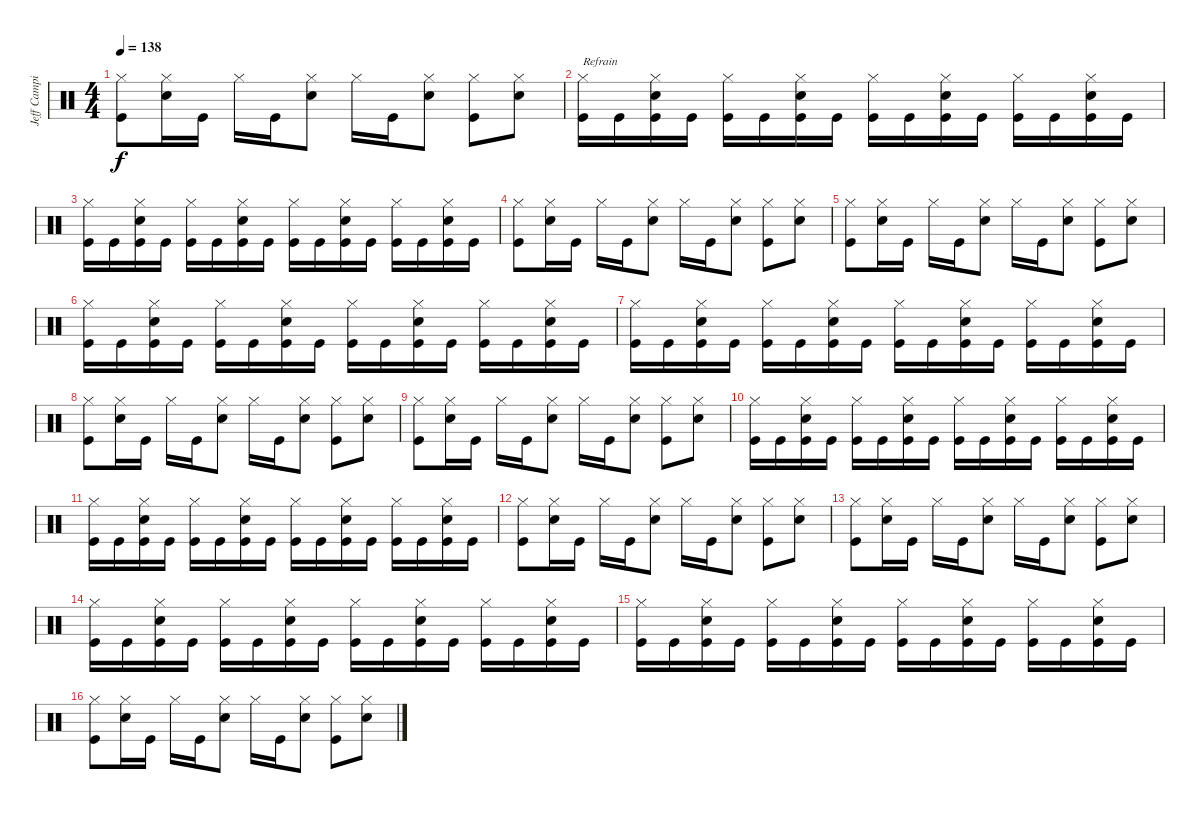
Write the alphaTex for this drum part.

\track ("Jeff Campitelli" "Jeff Campi") {instrument percussion}
\staff {score}
\articulation defaults
\ts (4 4)
\tempo 138
\clef neutral
\ks c
("Hi-Hat (closed)" "Kick (hit)").8{dy f} ("Electric Snare (hit)" "Hi-Hat (closed)").16 "Kick (hit)".16 "Hi-Hat (closed)".16 "Kick (hit)".16 ("Electric Snare (hit)" "Hi-Hat (closed)").8 "Hi-Hat (closed)".16 "Kick (hit)".16 ("Electric Snare (hit)" "Hi-Hat (closed)").8 ("Hi-Hat (closed)" "Kick (hit)").8 ("Electric Snare (hit)" "Hi-Hat (closed)").8 |
("Hi-Hat (closed)" "Kick (hit)").16{txt "Refrain"} "Kick (hit)".16 ("Electric Snare (hit)" "Hi-Hat (closed)" "Kick (hit)").16 "Kick (hit)".16 ("Hi-Hat (closed)" "Kick (hit)").16 "Kick (hit)".16 ("Electric Snare (hit)" "Hi-Hat (closed)" "Kick (hit)").16 "Kick (hit)".16 ("Hi-Hat (closed)" "Kick (hit)").16 "Kick (hit)".16 ("Electric Snare (hit)" "Hi-Hat (closed)" "Kick (hit)").16 "Kick (hit)".16 ("Hi-Hat (closed)" "Kick (hit)").16 "Kick (hit)".16 ("Electric Snare (hit)" "Hi-Hat (closed)" "Kick (hit)").16 "Kick (hit)".16 |
("Hi-Hat (closed)" "Kick (hit)").16 "Kick (hit)".16 ("Electric Snare (hit)" "Hi-Hat (closed)" "Kick (hit)").16 "Kick (hit)".16 ("Hi-Hat (closed)" "Kick (hit)").16 "Kick (hit)".16 ("Electric Snare (hit)" "Hi-Hat (closed)" "Kick (hit)").16 "Kick (hit)".16 ("Hi-Hat (closed)" "Kick (hit)").16 "Kick (hit)".16 ("Electric Snare (hit)" "Hi-Hat (closed)" "Kick (hit)").16 "Kick (hit)".16 ("Hi-Hat (closed)" "Kick (hit)").16 "Kick (hit)".16 ("Electric Snare (hit)" "Hi-Hat (closed)" "Kick (hit)").16 "Kick (hit)".16 |
("Hi-Hat (closed)" "Kick (hit)").8 ("Electric Snare (hit)" "Hi-Hat (closed)").16 "Kick (hit)".16 "Hi-Hat (closed)".16 "Kick (hit)".16 ("Electric Snare (hit)" "Hi-Hat (closed)").8 "Hi-Hat (closed)".16 "Kick (hit)".16 ("Electric Snare (hit)" "Hi-Hat (closed)").8 ("Hi-Hat (closed)" "Kick (hit)").8 ("Electric Snare (hit)" "Hi-Hat (closed)").8 |
("Hi-Hat (closed)" "Kick (hit)").8 ("Electric Snare (hit)" "Hi-Hat (closed)").16 "Kick (hit)".16 "Hi-Hat (closed)".16 "Kick (hit)".16 ("Electric Snare (hit)" "Hi-Hat (closed)").8 "Hi-Hat (closed)".16 "Kick (hit)".16 ("Electric Snare (hit)" "Hi-Hat (closed)").8 ("Hi-Hat (closed)" "Kick (hit)").8 ("Electric Snare (hit)" "Hi-Hat (closed)").8 |
("Hi-Hat (closed)" "Kick (hit)").16 "Kick (hit)".16 ("Electric Snare (hit)" "Hi-Hat (closed)" "Kick (hit)").16 "Kick (hit)".16 ("Hi-Hat (closed)" "Kick (hit)").16 "Kick (hit)".16 ("Electric Snare (hit)" "Hi-Hat (closed)" "Kick (hit)").16 "Kick (hit)".16 ("Hi-Hat (closed)" "Kick (hit)").16 "Kick (hit)".16 ("Electric Snare (hit)" "Hi-Hat (closed)" "Kick (hit)").16 "Kick (hit)".16 ("Hi-Hat (closed)" "Kick (hit)").16 "Kick (hit)".16 ("Electric Snare (hit)" "Hi-Hat (closed)" "Kick (hit)").16 "Kick (hit)".16 |
("Hi-Hat (closed)" "Kick (hit)").16 "Kick (hit)".16 ("Electric Snare (hit)" "Hi-Hat (closed)" "Kick (hit)").16 "Kick (hit)".16 ("Hi-Hat (closed)" "Kick (hit)").16 "Kick (hit)".16 ("Electric Snare (hit)" "Hi-Hat (closed)" "Kick (hit)").16 "Kick (hit)".16 ("Hi-Hat (closed)" "Kick (hit)").16 "Kick (hit)".16 ("Electric Snare (hit)" "Hi-Hat (closed)" "Kick (hit)").16 "Kick (hit)".16 ("Hi-Hat (closed)" "Kick (hit)").16 "Kick (hit)".16 ("Electric Snare (hit)" "Hi-Hat (closed)" "Kick (hit)").16 "Kick (hit)".16 |
("Hi-Hat (closed)" "Kick (hit)").8 ("Electric Snare (hit)" "Hi-Hat (closed)").16 "Kick (hit)".16 "Hi-Hat (closed)".16 "Kick (hit)".16 ("Electric Snare (hit)" "Hi-Hat (closed)").8 "Hi-Hat (closed)".16 "Kick (hit)".16 ("Electric Snare (hit)" "Hi-Hat (closed)").8 ("Hi-Hat (closed)" "Kick (hit)").8 ("Electric Snare (hit)" "Hi-Hat (closed)").8 |
("Hi-Hat (closed)" "Kick (hit)").8 ("Electric Snare (hit)" "Hi-Hat (closed)").16 "Kick (hit)".16 "Hi-Hat (closed)".16 "Kick (hit)".16 ("Electric Snare (hit)" "Hi-Hat (closed)").8 "Hi-Hat (closed)".16 "Kick (hit)".16 ("Electric Snare (hit)" "Hi-Hat (closed)").8 ("Hi-Hat (closed)" "Kick (hit)").8 ("Electric Snare (hit)" "Hi-Hat (closed)").8 |
("Hi-Hat (closed)" "Kick (hit)").16 "Kick (hit)".16 ("Electric Snare (hit)" "Hi-Hat (closed)" "Kick (hit)").16 "Kick (hit)".16 ("Hi-Hat (closed)" "Kick (hit)").16 "Kick (hit)".16 ("Electric Snare (hit)" "Hi-Hat (closed)" "Kick (hit)").16 "Kick (hit)".16 ("Hi-Hat (closed)" "Kick (hit)").16 "Kick (hit)".16 ("Electric Snare (hit)" "Hi-Hat (closed)" "Kick (hit)").16 "Kick (hit)".16 ("Hi-Hat (closed)" "Kick (hit)").16 "Kick (hit)".16 ("Electric Snare (hit)" "Hi-Hat (closed)" "Kick (hit)").16 "Kick (hit)".16 |
("Hi-Hat (closed)" "Kick (hit)").16 "Kick (hit)".16 ("Electric Snare (hit)" "Hi-Hat (closed)" "Kick (hit)").16 "Kick (hit)".16 ("Hi-Hat (closed)" "Kick (hit)").16 "Kick (hit)".16 ("Electric Snare (hit)" "Hi-Hat (closed)" "Kick (hit)").16 "Kick (hit)".16 ("Hi-Hat (closed)" "Kick (hit)").16 "Kick (hit)".16 ("Electric Snare (hit)" "Hi-Hat (closed)" "Kick (hit)").16 "Kick (hit)".16 ("Hi-Hat (closed)" "Kick (hit)").16 "Kick (hit)".16 ("Electric Snare (hit)" "Hi-Hat (closed)" "Kick (hit)").16 "Kick (hit)".16 |
("Hi-Hat (closed)" "Kick (hit)").8 ("Electric Snare (hit)" "Hi-Hat (closed)").16 "Kick (hit)".16 "Hi-Hat (closed)".16 "Kick (hit)".16 ("Electric Snare (hit)" "Hi-Hat (closed)").8 "Hi-Hat (closed)".16 "Kick (hit)".16 ("Electric Snare (hit)" "Hi-Hat (closed)").8 ("Hi-Hat (closed)" "Kick (hit)").8 ("Electric Snare (hit)" "Hi-Hat (closed)").8 |
("Hi-Hat (closed)" "Kick (hit)").8 ("Electric Snare (hit)" "Hi-Hat (closed)").16 "Kick (hit)".16 "Hi-Hat (closed)".16 "Kick (hit)".16 ("Electric Snare (hit)" "Hi-Hat (closed)").8 "Hi-Hat (closed)".16 "Kick (hit)".16 ("Electric Snare (hit)" "Hi-Hat (closed)").8 ("Hi-Hat (closed)" "Kick (hit)").8 ("Electric Snare (hit)" "Hi-Hat (closed)").8 |
("Hi-Hat (closed)" "Kick (hit)").16 "Kick (hit)".16 ("Electric Snare (hit)" "Hi-Hat (closed)" "Kick (hit)").16 "Kick (hit)".16 ("Hi-Hat (closed)" "Kick (hit)").16 "Kick (hit)".16 ("Electric Snare (hit)" "Hi-Hat (closed)" "Kick (hit)").16 "Kick (hit)".16 ("Hi-Hat (closed)" "Kick (hit)").16 "Kick (hit)".16 ("Electric Snare (hit)" "Hi-Hat (closed)" "Kick (hit)").16 "Kick (hit)".16 ("Hi-Hat (closed)" "Kick (hit)").16 "Kick (hit)".16 ("Electric Snare (hit)" "Hi-Hat (closed)" "Kick (hit)").16 "Kick (hit)".16 |
("Hi-Hat (closed)" "Kick (hit)").16 "Kick (hit)".16 ("Electric Snare (hit)" "Hi-Hat (closed)" "Kick (hit)").16 "Kick (hit)".16 ("Hi-Hat (closed)" "Kick (hit)").16 "Kick (hit)".16 ("Electric Snare (hit)" "Hi-Hat (closed)" "Kick (hit)").16 "Kick (hit)".16 ("Hi-Hat (closed)" "Kick (hit)").16 "Kick (hit)".16 ("Electric Snare (hit)" "Hi-Hat (closed)" "Kick (hit)").16 "Kick (hit)".16 ("Hi-Hat (closed)" "Kick (hit)").16 "Kick (hit)".16 ("Electric Snare (hit)" "Hi-Hat (closed)" "Kick (hit)").16 "Kick (hit)".16 |
("Hi-Hat (closed)" "Kick (hit)").8 ("Electric Snare (hit)" "Hi-Hat (closed)").16 "Kick (hit)".16 "Hi-Hat (closed)".16 "Kick (hit)".16 ("Electric Snare (hit)" "Hi-Hat (closed)").8 "Hi-Hat (closed)".16 "Kick (hit)".16 ("Electric Snare (hit)" "Hi-Hat (closed)").8 ("Hi-Hat (closed)" "Kick (hit)").8 ("Electric Snare (hit)" "Hi-Hat (closed)").8
